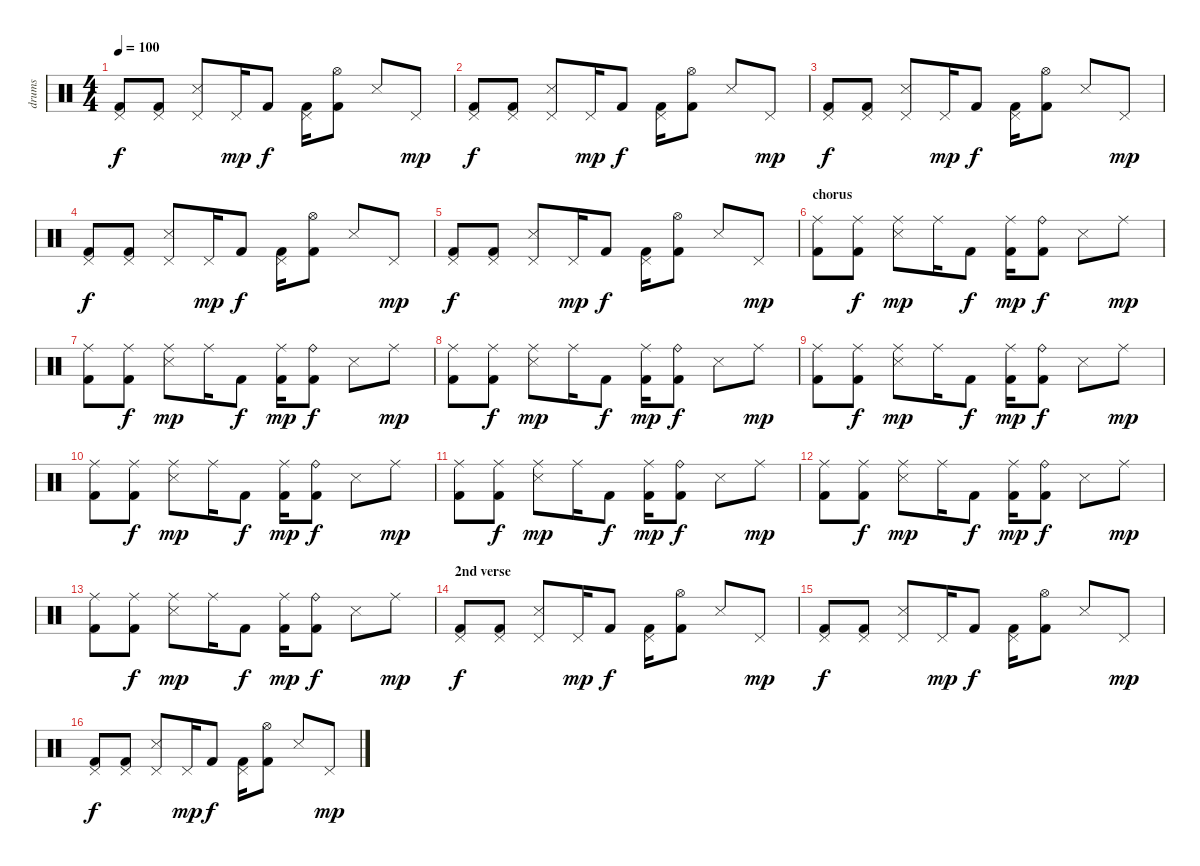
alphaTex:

\track ("drums" "drums") {instrument percussion}
\staff {score}
\articulation defaults
\ts (4 4)
\tempo 100
\clef neutral
\ks c
("Pedal Hi-Hat (hit)" "Kick (hit) 2").8{dy f} ("Pedal Hi-Hat (hit)" "Kick (hit) 2").8 ("Pedal Hi-Hat (hit)" "Snare (side stick) 3").8 "Pedal Hi-Hat (hit)".16{dy mp} "Kick (hit) 2".8{dy f} ("Pedal Hi-Hat (hit)" "Kick (hit) 2").16 ("Hi-Hat (open)" "Kick (hit) 2").8 "Snare (side stick) 3".8 "Pedal Hi-Hat (hit)".8{dy mp} |
("Pedal Hi-Hat (hit)" "Kick (hit) 2").8{dy f} ("Pedal Hi-Hat (hit)" "Kick (hit) 2").8 ("Pedal Hi-Hat (hit)" "Snare (side stick) 3").8 "Pedal Hi-Hat (hit)".16{dy mp} "Kick (hit) 2".8{dy f} ("Pedal Hi-Hat (hit)" "Kick (hit) 2").16 ("Hi-Hat (open)" "Kick (hit) 2").8 "Snare (side stick) 3".8 "Pedal Hi-Hat (hit)".8{dy mp} |
("Pedal Hi-Hat (hit)" "Kick (hit) 2").8{dy f} ("Pedal Hi-Hat (hit)" "Kick (hit) 2").8 ("Pedal Hi-Hat (hit)" "Snare (side stick) 3").8 "Pedal Hi-Hat (hit)".16{dy mp} "Kick (hit) 2".8{dy f} ("Pedal Hi-Hat (hit)" "Kick (hit) 2").16 ("Hi-Hat (open)" "Kick (hit) 2").8 "Snare (side stick) 3".8 "Pedal Hi-Hat (hit)".8{dy mp} |
("Pedal Hi-Hat (hit)" "Kick (hit) 2").8{dy f} ("Pedal Hi-Hat (hit)" "Kick (hit) 2").8 ("Pedal Hi-Hat (hit)" "Snare (side stick) 3").8 "Pedal Hi-Hat (hit)".16{dy mp} "Kick (hit) 2".8{dy f} ("Pedal Hi-Hat (hit)" "Kick (hit) 2").16 ("Hi-Hat (open)" "Kick (hit) 2").8 "Snare (side stick) 3".8 "Pedal Hi-Hat (hit)".8{dy mp} |
("Pedal Hi-Hat (hit)" "Kick (hit) 2").8{dy f} ("Pedal Hi-Hat (hit)" "Kick (hit) 2").8 ("Pedal Hi-Hat (hit)" "Snare (side stick) 3").8 "Pedal Hi-Hat (hit)".16{dy mp} "Kick (hit) 2".8{dy f} ("Pedal Hi-Hat (hit)" "Kick (hit) 2").16 ("Hi-Hat (open)" "Kick (hit) 2").8 "Snare (side stick) 3".8 "Pedal Hi-Hat (hit)".8{dy mp} |
\section ("" "chorus")
("Ride (middle)" "Kick (hit) 2").8 ("Ride (middle)" "Kick (hit) 2").8{dy f} ("Ride (middle)" "Snare (side stick) 3").8{dy mp} "Ride (middle)".16 "Kick (hit) 2".8{dy f} ("Ride (middle)" "Kick (hit) 2").16{dy mp} ("Ride (bell)" "Kick (hit) 2").8{dy f} "Snare (side stick) 3".8 "Ride (middle)".8{dy mp} |
("Ride (middle)" "Kick (hit) 2").8 ("Ride (middle)" "Kick (hit) 2").8{dy f} ("Ride (middle)" "Snare (side stick) 3").8{dy mp} "Ride (middle)".16 "Kick (hit) 2".8{dy f} ("Ride (middle)" "Kick (hit) 2").16{dy mp} ("Ride (bell)" "Kick (hit) 2").8{dy f} "Snare (side stick) 3".8 "Ride (middle)".8{dy mp} |
("Ride (middle)" "Kick (hit) 2").8 ("Ride (middle)" "Kick (hit) 2").8{dy f} ("Ride (middle)" "Snare (side stick) 3").8{dy mp} "Ride (middle)".16 "Kick (hit) 2".8{dy f} ("Ride (middle)" "Kick (hit) 2").16{dy mp} ("Ride (bell)" "Kick (hit) 2").8{dy f} "Snare (side stick) 3".8 "Ride (middle)".8{dy mp} |
("Ride (middle)" "Kick (hit) 2").8 ("Ride (middle)" "Kick (hit) 2").8{dy f} ("Ride (middle)" "Snare (side stick) 3").8{dy mp} "Ride (middle)".16 "Kick (hit) 2".8{dy f} ("Ride (middle)" "Kick (hit) 2").16{dy mp} ("Ride (bell)" "Kick (hit) 2").8{dy f} "Snare (side stick) 3".8 "Ride (middle)".8{dy mp} |
("Ride (middle)" "Kick (hit) 2").8 ("Ride (middle)" "Kick (hit) 2").8{dy f} ("Ride (middle)" "Snare (side stick) 3").8{dy mp} "Ride (middle)".16 "Kick (hit) 2".8{dy f} ("Ride (middle)" "Kick (hit) 2").16{dy mp} ("Ride (bell)" "Kick (hit) 2").8{dy f} "Snare (side stick) 3".8 "Ride (middle)".8{dy mp} |
("Ride (middle)" "Kick (hit) 2").8 ("Ride (middle)" "Kick (hit) 2").8{dy f} ("Ride (middle)" "Snare (side stick) 3").8{dy mp} "Ride (middle)".16 "Kick (hit) 2".8{dy f} ("Ride (middle)" "Kick (hit) 2").16{dy mp} ("Ride (bell)" "Kick (hit) 2").8{dy f} "Snare (side stick) 3".8 "Ride (middle)".8{dy mp} |
("Ride (middle)" "Kick (hit) 2").8 ("Ride (middle)" "Kick (hit) 2").8{dy f} ("Ride (middle)" "Snare (side stick) 3").8{dy mp} "Ride (middle)".16 "Kick (hit) 2".8{dy f} ("Ride (middle)" "Kick (hit) 2").16{dy mp} ("Ride (bell)" "Kick (hit) 2").8{dy f} "Snare (side stick) 3".8 "Ride (middle)".8{dy mp} |
("Ride (middle)" "Kick (hit) 2").8 ("Ride (middle)" "Kick (hit) 2").8{dy f} ("Ride (middle)" "Snare (side stick) 3").8{dy mp} "Ride (middle)".16 "Kick (hit) 2".8{dy f} ("Ride (middle)" "Kick (hit) 2").16{dy mp} ("Ride (bell)" "Kick (hit) 2").8{dy f} "Snare (side stick) 3".8 "Ride (middle)".8{dy mp} |
\section ("" "2nd verse")
("Pedal Hi-Hat (hit)" "Kick (hit) 2").8{dy f} ("Pedal Hi-Hat (hit)" "Kick (hit) 2").8 ("Pedal Hi-Hat (hit)" "Snare (side stick) 3").8 "Pedal Hi-Hat (hit)".16{dy mp} "Kick (hit) 2".8{dy f} ("Pedal Hi-Hat (hit)" "Kick (hit) 2").16 ("Hi-Hat (open)" "Kick (hit) 2").8 "Snare (side stick) 3".8 "Pedal Hi-Hat (hit)".8{dy mp} |
("Pedal Hi-Hat (hit)" "Kick (hit) 2").8{dy f} ("Pedal Hi-Hat (hit)" "Kick (hit) 2").8 ("Pedal Hi-Hat (hit)" "Snare (side stick) 3").8 "Pedal Hi-Hat (hit)".16{dy mp} "Kick (hit) 2".8{dy f} ("Pedal Hi-Hat (hit)" "Kick (hit) 2").16 ("Hi-Hat (open)" "Kick (hit) 2").8 "Snare (side stick) 3".8 "Pedal Hi-Hat (hit)".8{dy mp} |
("Pedal Hi-Hat (hit)" "Kick (hit) 2").8{dy f} ("Pedal Hi-Hat (hit)" "Kick (hit) 2").8 ("Pedal Hi-Hat (hit)" "Snare (side stick) 3").8 "Pedal Hi-Hat (hit)".16{dy mp} "Kick (hit) 2".8{dy f} ("Pedal Hi-Hat (hit)" "Kick (hit) 2").16 ("Hi-Hat (open)" "Kick (hit) 2").8 "Snare (side stick) 3".8 "Pedal Hi-Hat (hit)".8{dy mp}
